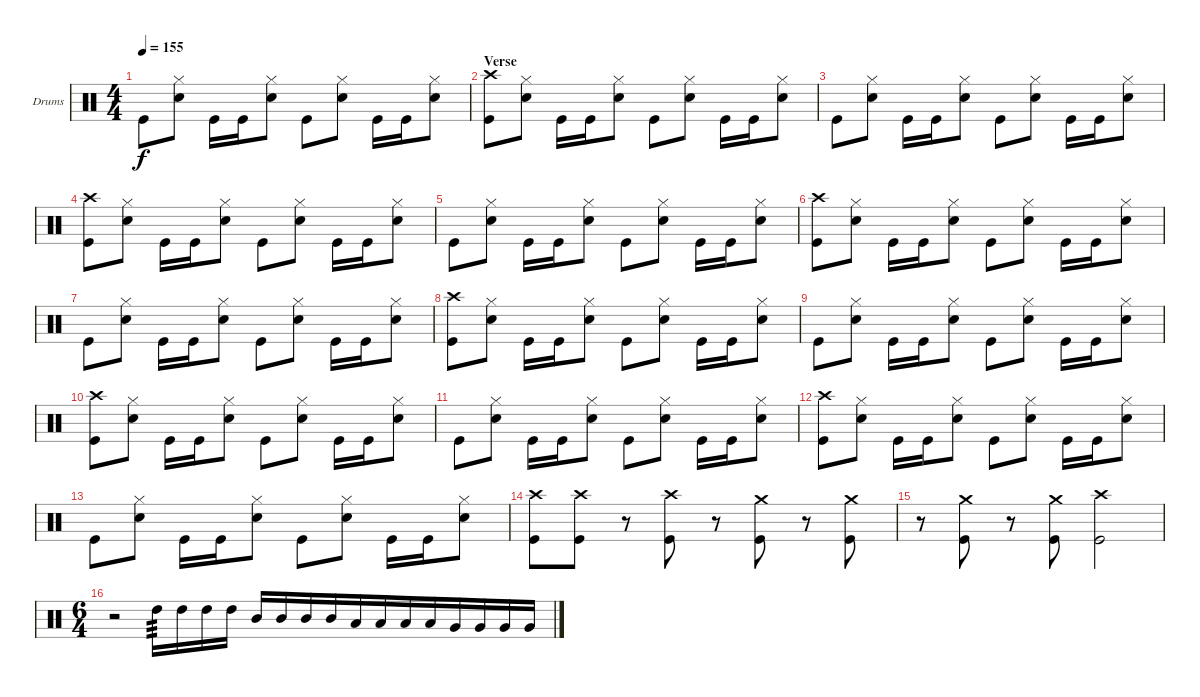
\bracketExtendMode groupsimilarinstruments
\firstSystemTrackNameOrientation horizontal
\otherSystemsTrackNameOrientation horizontal
\track ("Drumkit" "Drums") {instrument percussion}
\staff {score}
\articulation defaults
\ts (4 4)
\tempo 155
\clef neutral
\ks c "Kick (hit)".8{dy f}
("Hi-Hat (closed)" "Snare (hit) 2").8 "Kick (hit)".16 "Kick (hit)".16 ("Hi-Hat (closed)" "Snare (hit) 2").8 "Kick (hit)".8 ("Hi-Hat (closed)" "Snare (hit) 2").8 "Kick (hit)".16 "Kick (hit)".16 ("Hi-Hat (closed)" "Snare (hit) 2").8 |
\section ("" "Verse")
("Crash high (hit)" "Kick (hit)").8 ("Hi-Hat (closed)" "Snare (hit) 2").8 "Kick (hit)".16 "Kick (hit)".16 ("Hi-Hat (closed)" "Snare (hit) 2").8 "Kick (hit)".8 ("Hi-Hat (closed)" "Snare (hit) 2").8 "Kick (hit)".16 "Kick (hit)".16 ("Hi-Hat (closed)" "Snare (hit) 2").8 |
"Kick (hit)".8 ("Hi-Hat (closed)" "Snare (hit) 2").8 "Kick (hit)".16 "Kick (hit)".16 ("Hi-Hat (closed)" "Snare (hit) 2").8 "Kick (hit)".8 ("Hi-Hat (closed)" "Snare (hit) 2").8 "Kick (hit)".16 "Kick (hit)".16 ("Hi-Hat (closed)" "Snare (hit) 2").8 |
("Crash high (hit)" "Kick (hit)").8 ("Hi-Hat (closed)" "Snare (hit) 2").8 "Kick (hit)".16 "Kick (hit)".16 ("Hi-Hat (closed)" "Snare (hit) 2").8 "Kick (hit)".8 ("Hi-Hat (closed)" "Snare (hit) 2").8 "Kick (hit)".16 "Kick (hit)".16 ("Hi-Hat (closed)" "Snare (hit) 2").8 |
"Kick (hit)".8 ("Hi-Hat (closed)" "Snare (hit) 2").8 "Kick (hit)".16 "Kick (hit)".16 ("Hi-Hat (closed)" "Snare (hit) 2").8 "Kick (hit)".8 ("Hi-Hat (closed)" "Snare (hit) 2").8 "Kick (hit)".16 "Kick (hit)".16 ("Hi-Hat (closed)" "Snare (hit) 2").8 |
("Crash high (hit)" "Kick (hit)").8 ("Hi-Hat (closed)" "Snare (hit) 2").8 "Kick (hit)".16 "Kick (hit)".16 ("Hi-Hat (closed)" "Snare (hit) 2").8 "Kick (hit)".8 ("Hi-Hat (closed)" "Snare (hit) 2").8 "Kick (hit)".16 "Kick (hit)".16 ("Hi-Hat (closed)" "Snare (hit) 2").8 |
"Kick (hit)".8 ("Hi-Hat (closed)" "Snare (hit) 2").8 "Kick (hit)".16 "Kick (hit)".16 ("Hi-Hat (closed)" "Snare (hit) 2").8 "Kick (hit)".8 ("Hi-Hat (closed)" "Snare (hit) 2").8 "Kick (hit)".16 "Kick (hit)".16 ("Hi-Hat (closed)" "Snare (hit) 2").8 |
("Crash high (hit)" "Kick (hit)").8 ("Hi-Hat (closed)" "Snare (hit) 2").8 "Kick (hit)".16 "Kick (hit)".16 ("Hi-Hat (closed)" "Snare (hit) 2").8 "Kick (hit)".8 ("Hi-Hat (closed)" "Snare (hit) 2").8 "Kick (hit)".16 "Kick (hit)".16 ("Hi-Hat (closed)" "Snare (hit) 2").8 |
"Kick (hit)".8 ("Hi-Hat (closed)" "Snare (hit) 2").8 "Kick (hit)".16 "Kick (hit)".16 ("Hi-Hat (closed)" "Snare (hit) 2").8 "Kick (hit)".8 ("Hi-Hat (closed)" "Snare (hit) 2").8 "Kick (hit)".16 "Kick (hit)".16 ("Hi-Hat (closed)" "Snare (hit) 2").8 |
("Crash high (hit)" "Kick (hit)").8 ("Hi-Hat (closed)" "Snare (hit) 2").8 "Kick (hit)".16 "Kick (hit)".16 ("Hi-Hat (closed)" "Snare (hit) 2").8 "Kick (hit)".8 ("Hi-Hat (closed)" "Snare (hit) 2").8 "Kick (hit)".16 "Kick (hit)".16 ("Hi-Hat (closed)" "Snare (hit) 2").8 |
"Kick (hit)".8 ("Hi-Hat (closed)" "Snare (hit) 2").8 "Kick (hit)".16 "Kick (hit)".16 ("Hi-Hat (closed)" "Snare (hit) 2").8 "Kick (hit)".8 ("Hi-Hat (closed)" "Snare (hit) 2").8 "Kick (hit)".16 "Kick (hit)".16 ("Hi-Hat (closed)" "Snare (hit) 2").8 |
("Crash high (hit)" "Kick (hit)").8 ("Hi-Hat (closed)" "Snare (hit) 2").8 "Kick (hit)".16 "Kick (hit)".16 ("Hi-Hat (closed)" "Snare (hit) 2").8 "Kick (hit)".8 ("Hi-Hat (closed)" "Snare (hit) 2").8 "Kick (hit)".16 "Kick (hit)".16 ("Hi-Hat (closed)" "Snare (hit) 2").8 |
"Kick (hit)".8 ("Hi-Hat (closed)" "Snare (hit) 2").8 "Kick (hit)".16 "Kick (hit)".16 ("Hi-Hat (closed)" "Snare (hit) 2").8 "Kick (hit)".8 ("Hi-Hat (closed)" "Snare (hit) 2").8 "Kick (hit)".16 "Kick (hit)".16 ("Hi-Hat (closed)" "Snare (hit) 2").8 |
("Crash high (hit)" "Kick (hit)").8 ("Crash high (hit)" "Kick (hit)").8 r.8 ("Crash high (hit)" "Kick (hit)").8 r.8 ("Crash medium (hit)" "Kick (hit)").8 r.8 ("Crash medium (hit)" "Kick (hit)").8 |
r.8 ("Crash medium (hit)" "Kick (hit)").8 r.8 ("Crash medium (hit)" "Kick (hit)").8 ("Crash high (hit)" "Kick (hit)").2 |
\ts (6 4)
\beaming (8 6 6)
r.2 "High Tom (hit)".16{tp 3} "High Tom (hit)".16 "High Tom (hit)".16 "High Tom (hit)".16 "Mid Tom (hit)".16 "Mid Tom (hit)".16 "Mid Tom (hit)".16 "Mid Tom (hit)".16 "Low Tom (hit)".16 "Low Tom (hit)".16 "Low Tom (hit)".16 "Low Tom (hit)".16 "Very Low Tom (hit)".16 "Very Low Tom (hit)".16 "Very Low Tom (hit)".16 "Very Low Tom (hit)".16
